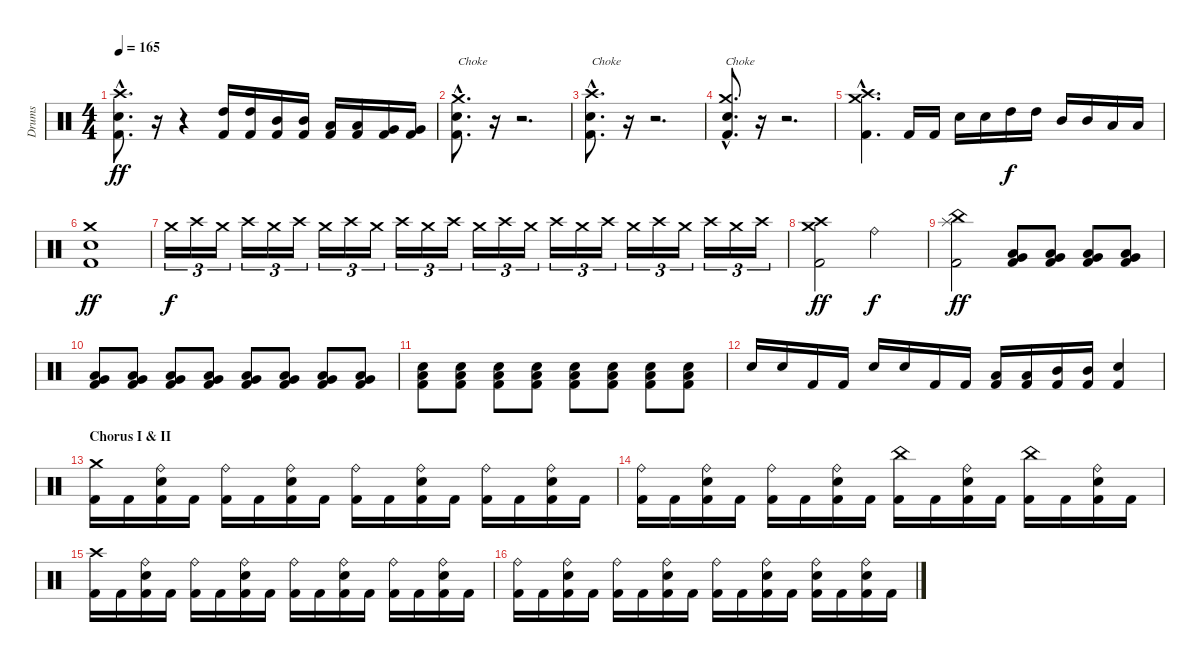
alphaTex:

\track ("Drums" "Drums") {instrument percussion}
\staff {score}
\articulation defaults
\ts (4 4)
\tempo 165
\clef neutral
\ks c
("Crash high (hit)"{hac} "Electric Snare (hit)"{hac} "Kick (hit) 2"{hac}).8{d dy ff volume 15} r.16 r.4 ("High Tom (hit)" "Kick (hit) 2").16 ("High Tom (hit)" "Kick (hit) 2").16 ("Mid Tom (hit)" "Kick (hit) 2").16 ("Mid Tom (hit)" "Kick (hit) 2").16 ("Low Tom (hit)" "Kick (hit) 2").16 ("Low Tom (hit)" "Kick (hit) 2").16 ("Very Low Tom (hit)" "Kick (hit) 2").16 ("Very Low Tom (hit)" "Kick (hit) 2").16 |
("Crash medium (hit)"{hac} "Electric Snare (hit)"{hac} "Kick (hit) 2"{hac}).8{d txt "Choke"} r.16{volume 0} r.2{d} |
("Crash high (hit)"{hac} "Electric Snare (hit)"{hac} "Kick (hit) 2"{hac}).8{d txt "Choke" volume 15} r.16{volume 0} r.2{d} |
("Crash medium (hit)"{hac} "Snare (hit) 2"{hac} "Kick (hit) 2"{hac}).8{d txt "Choke" volume 15} r.16{volume 0} r.2{d} |
("Crash medium (hit)"{hac} "Crash high (hit)"{hac} "Kick (hit) 2"{hac}).4{d volume 15} "Kick (hit) 2".16 "Kick (hit) 2".16 "Electric Snare (hit)".16 "Electric Snare (hit)".16 "High Tom (hit)".16{dy f} "High Tom (hit)".16 "Mid Tom (hit)".16 "Mid Tom (hit)".16 "Low Tom (hit)".16 "Low Tom (hit)".16 |
("Crash medium (hit)" "Electric Snare (hit)" "Kick (hit) 2").1{dy ff} |
"Crash medium (hit)".16{tu (3 2) dy f volume 6} "Crash high (hit)".16{tu (3 2) volume 15} "Crash medium (hit)".16{tu (3 2)} "Crash high (hit)".16{tu (3 2)} "Crash medium (hit)".16{tu (3 2)} "Crash high (hit)".16{tu (3 2)} "Crash medium (hit)".16{tu (3 2)} "Crash high (hit)".16{tu (3 2)} "Crash medium (hit)".16{tu (3 2)} "Crash high (hit)".16{tu (3 2)} "Crash medium (hit)".16{tu (3 2)} "Crash high (hit)".16{tu (3 2)} "Crash medium (hit)".16{tu (3 2)} "Crash high (hit)".16{tu (3 2)} "Crash medium (hit)".16{tu (3 2)} "Crash high (hit)".16{tu (3 2)} "Crash medium (hit)".16{tu (3 2)} "Crash high (hit)".16{tu (3 2)} "Crash medium (hit)".16{tu (3 2)} "Crash high (hit)".16{tu (3 2)} "Crash medium (hit)".16{tu (3 2)} "Crash high (hit)".16{tu (3 2)} "Crash medium (hit)".16{tu (3 2)} "Crash high (hit)".16{tu (3 2)} |
("Crash medium (hit)" "Crash high (hit)" "Kick (hit) 2").2{dy ff volume 15} "Ride (bell)".2{dy f} |
("China (hit)" "Splash (hit)" "Kick (hit) 2").2{dy ff} ("Low Floor Tom (hit)" "Very Low Tom (hit)" "Kick (hit) 2").8 ("Low Floor Tom (hit)" "Very Low Tom (hit)" "Kick (hit) 2").8 ("Low Floor Tom (hit)" "Very Low Tom (hit)" "Kick (hit) 2").8 ("Low Floor Tom (hit)" "Very Low Tom (hit)" "Kick (hit) 2").8 |
("Low Floor Tom (hit)" "Very Low Tom (hit)" "Kick (hit) 2").8 ("Low Floor Tom (hit)" "Very Low Tom (hit)" "Kick (hit) 2").8 ("Low Floor Tom (hit)" "Very Low Tom (hit)" "Kick (hit) 2").8 ("Low Floor Tom (hit)" "Very Low Tom (hit)" "Kick (hit) 2").8 ("Low Floor Tom (hit)" "Very Low Tom (hit)" "Kick (hit) 2").8 ("Low Floor Tom (hit)" "Very Low Tom (hit)" "Kick (hit) 2").8 ("Low Floor Tom (hit)" "Very Low Tom (hit)" "Kick (hit) 2").8 ("Low Floor Tom (hit)" "Very Low Tom (hit)" "Kick (hit) 2").8 |
("Low Floor Tom (hit)" "Electric Snare (hit)" "Kick (hit) 2").8 ("Low Floor Tom (hit)" "Electric Snare (hit)" "Kick (hit) 2").8 ("Low Floor Tom (hit)" "Electric Snare (hit)" "Kick (hit) 2").8 ("Low Floor Tom (hit)" "Electric Snare (hit)" "Kick (hit) 2").8 ("Low Floor Tom (hit)" "Electric Snare (hit)" "Kick (hit) 2").8 ("Low Floor Tom (hit)" "Electric Snare (hit)" "Kick (hit) 2").8 ("Low Floor Tom (hit)" "Electric Snare (hit)" "Kick (hit) 2").8 ("Low Floor Tom (hit)" "Electric Snare (hit)" "Kick (hit) 2").8 |
"Electric Snare (hit)".16 "Electric Snare (hit)".16 "Kick (hit) 2".16 "Kick (hit) 2".16 "Electric Snare (hit)".16 "Electric Snare (hit)".16 "Kick (hit) 2".16 "Kick (hit) 2".16 ("Low Tom (hit)" "Kick (hit) 2").16 ("Low Tom (hit)" "Kick (hit) 2").16 ("Mid Tom (hit)" "Kick (hit) 2").16 ("Mid Tom (hit)" "Kick (hit) 2").16 ("Electric Snare (hit)" "Kick (hit) 2").4 |
\section ("" "Chorus I & II")
("Crash medium (hit)" "Kick (hit) 2").16 "Kick (hit) 2".16 ("Ride (bell)" "Electric Snare (hit)" "Kick (hit) 2").16 "Kick (hit) 2".16 ("Ride (bell)" "Kick (hit) 2").16 "Kick (hit) 2".16 ("Ride (bell)" "Electric Snare (hit)" "Kick (hit) 2").16 "Kick (hit) 2".16 ("Ride (bell)" "Kick (hit) 2").16 "Kick (hit) 2".16 ("Ride (bell)" "Electric Snare (hit)" "Kick (hit) 2").16 "Kick (hit) 2".16 ("Ride (bell)" "Kick (hit) 2").16 "Kick (hit) 2".16 ("Ride (bell)" "Electric Snare (hit)" "Kick (hit) 2").16 "Kick (hit) 2".16 |
("Ride (bell)" "Kick (hit) 2").16 "Kick (hit) 2".16 ("Ride (bell)" "Electric Snare (hit)" "Kick (hit) 2").16 "Kick (hit) 2".16 ("Ride (bell)" "Kick (hit) 2").16 "Kick (hit) 2".16 ("Ride (bell)" "Electric Snare (hit)" "Kick (hit) 2").16 "Kick (hit) 2".16 ("China (hit)" "Kick (hit) 2").16 "Kick (hit) 2".16 ("Ride (bell)" "Electric Snare (hit)" "Kick (hit) 2").16 "Kick (hit) 2".16 ("China (hit)" "Kick (hit) 2").16 "Kick (hit) 2".16 ("Ride (bell)" "Electric Snare (hit)" "Kick (hit) 2").16 "Kick (hit) 2".16 |
("Crash high (hit)" "Kick (hit) 2").16 "Kick (hit) 2".16 ("Ride (bell)" "Electric Snare (hit)" "Kick (hit) 2").16 "Kick (hit) 2".16 ("Ride (bell)" "Kick (hit) 2").16 "Kick (hit) 2".16 ("Ride (bell)" "Electric Snare (hit)" "Kick (hit) 2").16 "Kick (hit) 2".16 ("Ride (bell)" "Kick (hit) 2").16 "Kick (hit) 2".16 ("Ride (bell)" "Electric Snare (hit)" "Kick (hit) 2").16 "Kick (hit) 2".16 ("Ride (bell)" "Kick (hit) 2").16 "Kick (hit) 2".16 ("Ride (bell)" "Electric Snare (hit)" "Kick (hit) 2").16 "Kick (hit) 2".16 |
("Ride (bell)" "Kick (hit) 2").16 "Kick (hit) 2".16 ("Ride (bell)" "Electric Snare (hit)" "Kick (hit) 2").16 "Kick (hit) 2".16 ("Ride (bell)" "Kick (hit) 2").16 "Kick (hit) 2".16 ("Ride (bell)" "Electric Snare (hit)" "Kick (hit) 2").16 "Kick (hit) 2".16 ("Ride (bell)" "Kick (hit) 2").16 "Kick (hit) 2".16 ("Ride (bell)" "Electric Snare (hit)" "Kick (hit) 2").16 "Kick (hit) 2".16 ("Ride (bell)" "Electric Snare (hit)" "Kick (hit) 2").16 "Kick (hit) 2".16 ("Ride (bell)" "Electric Snare (hit)" "Kick (hit) 2").16 "Kick (hit) 2".16
